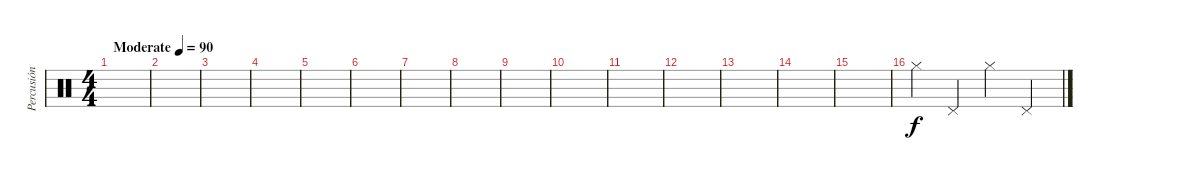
\track ("Percusión" "Percusión") {instrument percussion}
\staff {score}
\articulation defaults
\ts (4 4)
\tempo (90 "Moderate")
\clef neutral
\ks c
|
|
|
|
|
|
|
|
|
|
|
|
|
|
|
"Hi-Hat (closed)".4 "Pedal Hi-Hat (hit)".4 "Hi-Hat (closed)".4 "Pedal Hi-Hat (hit)".4
